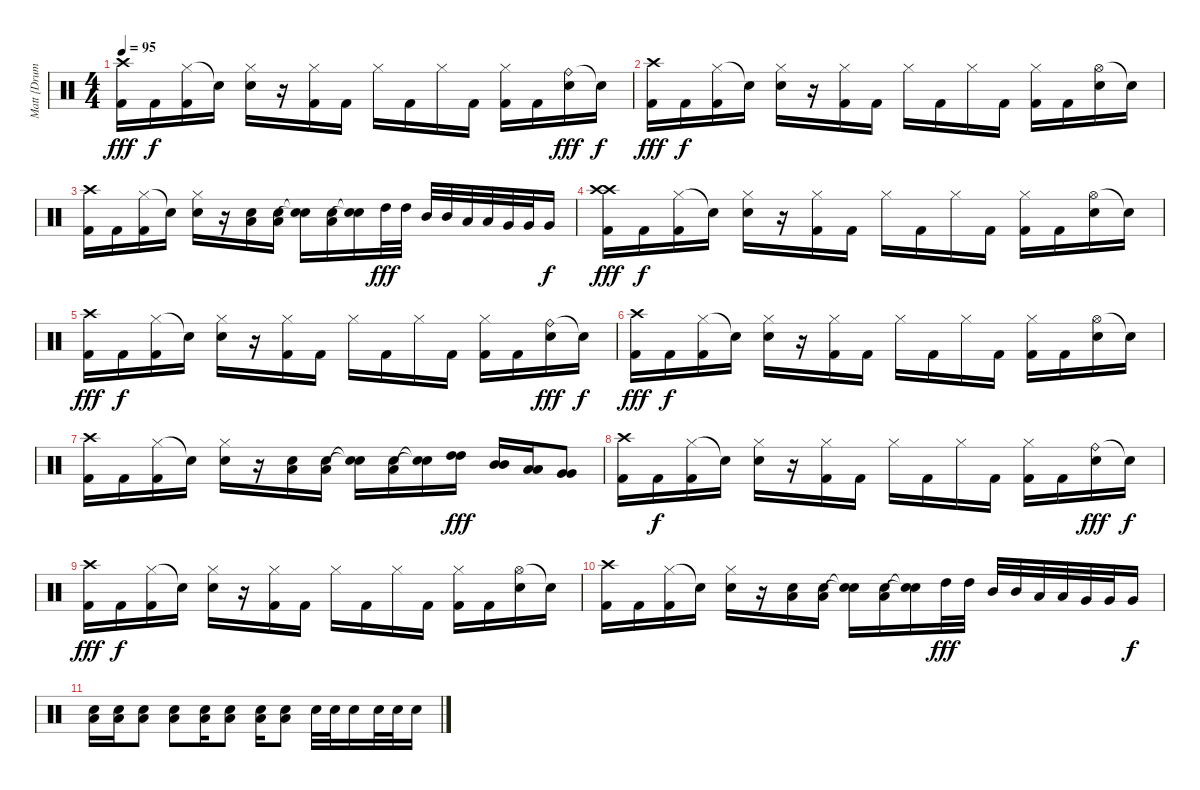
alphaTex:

\track ("Matt {Drums}" "Matt {Drum") {instrument percussion}
\staff {score}
\articulation defaults
\ts (4 4)
\tempo 95
\clef neutral
\ks c
("Crash high (hit)" "Kick (hit) 2").16{dy fff} "Kick (hit) 2".16{dy f} ("Hi-Hat (closed)" "Kick (hit) 2").16 "Electric Snare (hit)"{t}.16 ("Hi-Hat (closed)" "Electric Snare (hit)").16 r.16 ("Hi-Hat (closed)" "Kick (hit) 2").16 "Kick (hit) 2".16 "Hi-Hat (closed)".16 "Kick (hit) 2".16 "Hi-Hat (closed)".16 "Kick (hit) 2".16 ("Hi-Hat (closed)" "Kick (hit) 2").16 "Kick (hit) 2".16 ("Ride (bell)" "Electric Snare (hit)").16{dy fff} "Snare (hit)"{t}.16{dy f} |
("Crash high (hit)" "Kick (hit) 2").16{dy fff} "Kick (hit) 2".16{dy f} ("Hi-Hat (closed)" "Kick (hit) 2").16 "Electric Snare (hit)"{t}.16 ("Hi-Hat (closed)" "Electric Snare (hit)").16 r.16 ("Hi-Hat (closed)" "Kick (hit) 2").16 "Kick (hit) 2".16 "Hi-Hat (closed)".16 "Kick (hit) 2".16 "Hi-Hat (closed)".16 "Kick (hit) 2".16 ("Hi-Hat (closed)" "Kick (hit) 2").16 "Kick (hit) 2".16 ("Hi-Hat (open)" "Electric Snare (hit)").16 "Snare (hit)"{t}.16 |
("Crash high (hit)" "Kick (hit) 2").16 "Kick (hit) 2".16 ("Hi-Hat (closed)" "Kick (hit) 2").16 "Snare (hit)"{t}.16 ("Hi-Hat (closed)" "Electric Snare (hit)").16 r.16 ("Low Tom (hit)" "Electric Snare (hit)").16 ("Low Tom (hit)" "Electric Snare (hit)").16 ("Snare (hit)"{t} "Snare (hit)"{t}).16 ("Low Tom (hit)" "Electric Snare (hit)").16 ("Snare (hit)"{t} "Snare (hit)"{t}).16 "High Tom (hit)".32{dy fff} "High Tom (hit)".32 "Mid Tom (hit)".32 "Mid Tom (hit)".32 "Low Tom (hit)".32 "Low Tom (hit)".32 "Very Low Tom (hit)".32 "Very Low Tom (hit)".32 "Very Low Tom (hit)".16{dy f} |
("Crash high (hit)" "Crash high (hit)" "Kick (hit) 2").16{dy fff} "Kick (hit) 2".16{dy f} ("Hi-Hat (closed)" "Kick (hit) 2").16 "Electric Snare (hit)"{t}.16 ("Hi-Hat (closed)" "Electric Snare (hit)").16 r.16 ("Hi-Hat (closed)" "Kick (hit) 2").16 "Kick (hit) 2".16 "Hi-Hat (closed)".16 "Kick (hit) 2".16 "Hi-Hat (closed)".16 "Kick (hit) 2".16 ("Hi-Hat (closed)" "Kick (hit) 2").16 "Kick (hit) 2".16 ("Hi-Hat (open)" "Electric Snare (hit)").16 "Snare (hit)"{t}.16 |
("Crash high (hit)" "Kick (hit) 2").16{dy fff} "Kick (hit) 2".16{dy f} ("Hi-Hat (closed)" "Kick (hit) 2").16 "Electric Snare (hit)"{t}.16 ("Hi-Hat (closed)" "Electric Snare (hit)").16 r.16 ("Hi-Hat (closed)" "Kick (hit) 2").16 "Kick (hit) 2".16 "Hi-Hat (closed)".16 "Kick (hit) 2".16 "Hi-Hat (closed)".16 "Kick (hit) 2".16 ("Hi-Hat (closed)" "Kick (hit) 2").16 "Kick (hit) 2".16 ("Ride (bell)" "Electric Snare (hit)").16{dy fff} "Snare (hit)"{t}.16{dy f} |
("Crash high (hit)" "Kick (hit) 2").16{dy fff} "Kick (hit) 2".16{dy f} ("Hi-Hat (closed)" "Kick (hit) 2").16 "Electric Snare (hit)"{t}.16 ("Hi-Hat (closed)" "Electric Snare (hit)").16 r.16 ("Hi-Hat (closed)" "Kick (hit) 2").16 "Kick (hit) 2".16 "Hi-Hat (closed)".16 "Kick (hit) 2".16 "Hi-Hat (closed)".16 "Kick (hit) 2".16 ("Hi-Hat (closed)" "Kick (hit) 2").16 "Kick (hit) 2".16 ("Hi-Hat (open)" "Electric Snare (hit)").16 "Snare (hit)"{t}.16 |
("Crash high (hit)" "Kick (hit) 2").16 "Kick (hit) 2".16 ("Hi-Hat (closed)" "Kick (hit) 2").16 "Snare (hit)"{t}.16 ("Hi-Hat (closed)" "Electric Snare (hit)").16 r.16 ("Low Tom (hit)" "Electric Snare (hit)").16 ("Low Tom (hit)" "Electric Snare (hit)").16 ("Snare (hit)"{t} "Snare (hit)"{t}).16 ("Low Tom (hit)" "Electric Snare (hit)").16 ("Snare (hit)"{t} "Snare (hit)"{t}).16 ("High Tom (hit)" "High Tom (hit)").16{dy fff} ("Mid Tom (hit)" "Mid Tom (hit)").16 ("Low Tom (hit)" "Low Tom (hit)").16 ("Very Low Tom (hit)" "Very Low Tom (hit)").8 |
("Crash high (hit)" "Kick (hit) 2").16 "Kick (hit) 2".16{dy f} ("Hi-Hat (closed)" "Kick (hit) 2").16 "Electric Snare (hit)"{t}.16 ("Hi-Hat (closed)" "Electric Snare (hit)").16 r.16 ("Hi-Hat (closed)" "Kick (hit) 2").16 "Kick (hit) 2".16 "Hi-Hat (closed)".16 "Kick (hit) 2".16 "Hi-Hat (closed)".16 "Kick (hit) 2".16 ("Hi-Hat (closed)" "Kick (hit) 2").16 "Kick (hit) 2".16 ("Ride (bell)" "Electric Snare (hit)").16{dy fff} "Snare (hit)"{t}.16{dy f} |
("Crash high (hit)" "Kick (hit) 2").16{dy fff} "Kick (hit) 2".16{dy f} ("Hi-Hat (closed)" "Kick (hit) 2").16 "Electric Snare (hit)"{t}.16 ("Hi-Hat (closed)" "Electric Snare (hit)").16 r.16 ("Hi-Hat (closed)" "Kick (hit) 2").16 "Kick (hit) 2".16 "Hi-Hat (closed)".16 "Kick (hit) 2".16 "Hi-Hat (closed)".16 "Kick (hit) 2".16 ("Hi-Hat (closed)" "Kick (hit) 2").16 "Kick (hit) 2".16 ("Hi-Hat (open)" "Electric Snare (hit)").16 "Snare (hit)"{t}.16 |
("Crash high (hit)" "Kick (hit) 2").16 "Kick (hit) 2".16 ("Hi-Hat (closed)" "Kick (hit) 2").16 "Snare (hit)"{t}.16 ("Hi-Hat (closed)" "Electric Snare (hit)").16 r.16 ("Low Tom (hit)" "Electric Snare (hit)").16 ("Low Tom (hit)" "Electric Snare (hit)").16 ("Snare (hit)"{t} "Snare (hit)"{t}).16 ("Low Tom (hit)" "Electric Snare (hit)").16 ("Snare (hit)"{t} "Snare (hit)"{t}).16 "High Tom (hit)".32{dy fff} "High Tom (hit)".32 "Mid Tom (hit)".32 "Mid Tom (hit)".32 "Low Tom (hit)".32 "Low Tom (hit)".32 "Very Low Tom (hit)".32 "Very Low Tom (hit)".32 "Very Low Tom (hit)".16{dy f} |
("Low Tom (hit)" "Electric Snare (hit)").16 ("Low Tom (hit)" "Electric Snare (hit)").16 ("Low Tom (hit)" "Electric Snare (hit)").8 ("Low Tom (hit)" "Electric Snare (hit)").8 ("Low Tom (hit)" "Electric Snare (hit)").16 ("Low Tom (hit)" "Electric Snare (hit)").8 ("Low Tom (hit)" "Electric Snare (hit)").16 ("Low Tom (hit)" "Electric Snare (hit)").8 "Electric Snare (hit)".32 "Electric Snare (hit)".32 "Electric Snare (hit)".16 "Electric Snare (hit)".32 "Electric Snare (hit)".32 "Electric Snare (hit)".16
